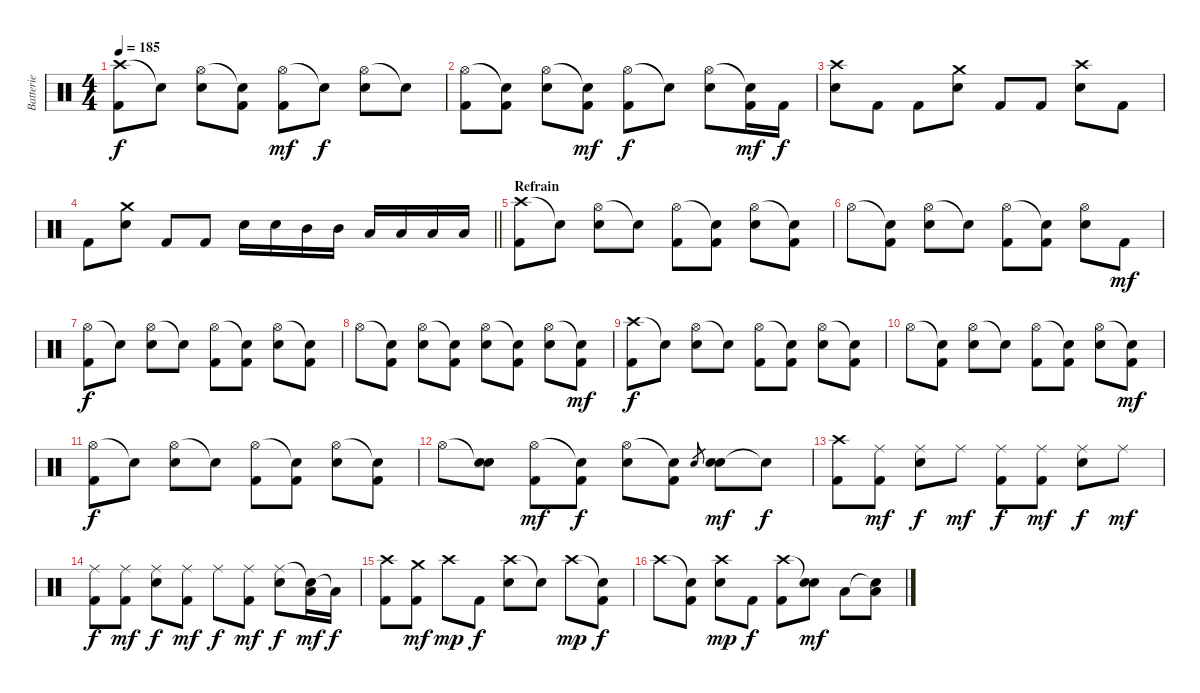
\track ("Batterie" "Batterie") {instrument percussion}
\staff {score}
\articulation defaults
\ts (4 4)
\tempo 185
\clef neutral
\ks c
("Crash high (hit)" "Kick (hit) 2").8{dy f} "Snare (hit)"{t}.8 ("Hi-Hat (open)" "Electric Snare (hit)").8 ("Snare (hit)"{t} "Kick (hit) 2").8 ("Hi-Hat (open)" "Kick (hit) 2").8{dy mf} "Snare (hit)"{t}.8{dy f} ("Hi-Hat (open)" "Electric Snare (hit)").8 "Snare (hit)"{t}.8 |
("Hi-Hat (open)" "Kick (hit) 2").8 ("Snare (hit)"{t} "Kick (hit) 2").8 ("Hi-Hat (open)" "Electric Snare (hit)").8 ("Snare (hit)"{t} "Kick (hit) 2").8{dy mf} ("Hi-Hat (open)" "Kick (hit) 2").8{dy f} "Snare (hit)"{t}.8 ("Hi-Hat (open)" "Electric Snare (hit)").8 ("Snare (hit)"{t} "Kick (hit) 2").16{dy mf} "Kick (hit) 2".16{dy f} |
("Crash high (hit)" "Electric Snare (hit)").8 "Kick (hit) 2".8 "Kick (hit) 2".8 ("Crash medium (hit)" "Electric Snare (hit)").8 "Kick (hit) 2".8 "Kick (hit) 2".8 ("Crash high (hit)" "Electric Snare (hit)").8 "Kick (hit) 2".8 |
\barLineRight lightlight "Kick (hit) 2".8
("Crash medium (hit)" "Electric Snare (hit)").8 "Kick (hit) 2".8 "Kick (hit) 2".8 "Electric Snare (hit)".16 "Electric Snare (hit)".16 "Mid Tom (hit)".16 "Mid Tom (hit)".16 "Low Tom (hit)".16 "Low Tom (hit)".16 "Low Floor Tom (hit)".16 "Low Floor Tom (hit)".16 |
\section ("" "Refrain")
("Crash high (hit)" "Kick (hit) 2").8 "Snare (hit)"{t}.8 ("Hi-Hat (open)" "Electric Snare (hit)").8 "Snare (hit)"{t}.8 ("Hi-Hat (open)" "Kick (hit) 2").8 ("Snare (hit)"{t} "Kick (hit) 2").8 ("Hi-Hat (open)" "Electric Snare (hit)").8 ("Snare (hit)"{t} "Kick (hit) 2").8 |
"Hi-Hat (open)".8 ("Snare (hit)"{t} "Kick (hit) 2").8 ("Hi-Hat (open)" "Electric Snare (hit)").8 "Snare (hit)"{t}.8 ("Hi-Hat (open)" "Kick (hit) 2").8 ("Snare (hit)"{t} "Kick (hit) 2").8 ("Hi-Hat (open)" "Electric Snare (hit)").8 "Kick (hit) 2".8{dy mf} |
("Hi-Hat (open)" "Kick (hit) 2").8{dy f} "Snare (hit)"{t}.8 ("Hi-Hat (open)" "Electric Snare (hit)").8 "Snare (hit)"{t}.8 ("Hi-Hat (open)" "Kick (hit) 2").8 ("Snare (hit)"{t} "Kick (hit) 2").8 ("Hi-Hat (open)" "Electric Snare (hit)").8 ("Snare (hit)"{t} "Kick (hit) 2").8 |
"Hi-Hat (open)".8 ("Snare (hit)"{t} "Kick (hit) 2").8 ("Hi-Hat (open)" "Electric Snare (hit)").8 ("Snare (hit)"{t} "Kick (hit) 2").8 ("Hi-Hat (open)" "Electric Snare (hit)").8 ("Snare (hit)"{t} "Kick (hit) 2").8 ("Hi-Hat (open)" "Electric Snare (hit)").8 ("Snare (hit)"{t} "Kick (hit) 2").8{dy mf} |
("Crash high (hit)" "Kick (hit) 2").8{dy f} "Snare (hit)"{t}.8 ("Hi-Hat (open)" "Electric Snare (hit)").8 "Snare (hit)"{t}.8 ("Hi-Hat (open)" "Kick (hit) 2").8 ("Snare (hit)"{t} "Kick (hit) 2").8 ("Hi-Hat (open)" "Electric Snare (hit)").8 ("Snare (hit)"{t} "Kick (hit) 2").8 |
"Hi-Hat (open)".8 ("Snare (hit)"{t} "Kick (hit) 2").8 ("Hi-Hat (open)" "Electric Snare (hit)").8 "Snare (hit)"{t}.8 ("Hi-Hat (open)" "Kick (hit) 2").8 ("Snare (hit)"{t} "Kick (hit) 2").8 ("Hi-Hat (open)" "Electric Snare (hit)").8 ("Snare (hit)"{t} "Kick (hit) 2").8{dy mf} |
("Hi-Hat (open)" "Kick (hit) 2").8{dy f} "Snare (hit)"{t}.8 ("Hi-Hat (open)" "Electric Snare (hit)").8 "Snare (hit)"{t}.8 ("Hi-Hat (open)" "Kick (hit) 2").8 ("Snare (hit)"{t} "Kick (hit) 2").8 ("Hi-Hat (open)" "Electric Snare (hit)").8 ("Snare (hit)"{t} "Kick (hit) 2").8 |
"Hi-Hat (open)".8 ("Snare (hit)"{t} "Electric Snare (hit)").8 ("Hi-Hat (open)" "Kick (hit) 2").8{dy mf} ("Snare (hit)"{t} "Kick (hit) 2").8{dy f} ("Hi-Hat (open)" "Electric Snare (hit)").8 ("Snare (hit)"{t} "Kick (hit) 2").8 "Electric Snare (hit)".8{gr} ("Electric Snare (hit)" "Electric Snare (hit)").8{dy mf} "Snare (hit)"{t}.8{dy f} |
("Crash high (hit)" "Kick (hit) 2").8 ("Ride (middle)" "Kick (hit) 2").8{dy mf} ("Ride (middle)" "Electric Snare (hit)").8{dy f} "Ride (middle)".8{dy mf} ("Ride (middle)" "Kick (hit) 2").8{dy f} ("Ride (middle)" "Kick (hit) 2").8{dy mf} ("Ride (middle)" "Electric Snare (hit)").8{dy f} "Ride (middle)".8{dy mf} |
("Ride (middle)" "Kick (hit) 2").8{dy f} ("Ride (middle)" "Kick (hit) 2").8{dy mf} ("Ride (middle)" "Electric Snare (hit)").8{dy f} ("Ride (middle)" "Kick (hit) 2").8{dy mf} "Ride (middle)".8{dy f} ("Ride (middle)" "Kick (hit) 2").8{dy mf} ("Ride (middle)" "Electric Snare (hit)").8{dy f} ("Snare (hit)"{t} "Low Floor Tom (hit)").16{dy mf} "Low Floor Tom (hit)"{t}.16{dy f} |
("Crash high (hit)" "Kick (hit) 2").8 ("Crash medium (hit)" "Kick (hit) 2").8{dy mf} "Crash high (hit)".8{dy mp} "Kick (hit) 2".8{dy f} ("Crash high (hit)" "Electric Snare (hit)").8 "Snare (hit)"{t}.8 "Crash high (hit)".8{dy mp} ("Snare (hit)"{t} "Kick (hit) 2").8{dy f} |
"Crash high (hit)".8 ("Snare (hit)"{t} "Kick (hit) 2").8 ("Crash high (hit)" "Electric Snare (hit)").8{dy mp} "Kick (hit) 2".8{dy f} ("Crash high (hit)" "Kick (hit) 2").8 ("Snare (hit)"{t} "Electric Snare (hit)").8{dy mf} "Low Tom (hit)".8 ("Snare (hit)"{t} "Low Floor Tom (hit)").8
